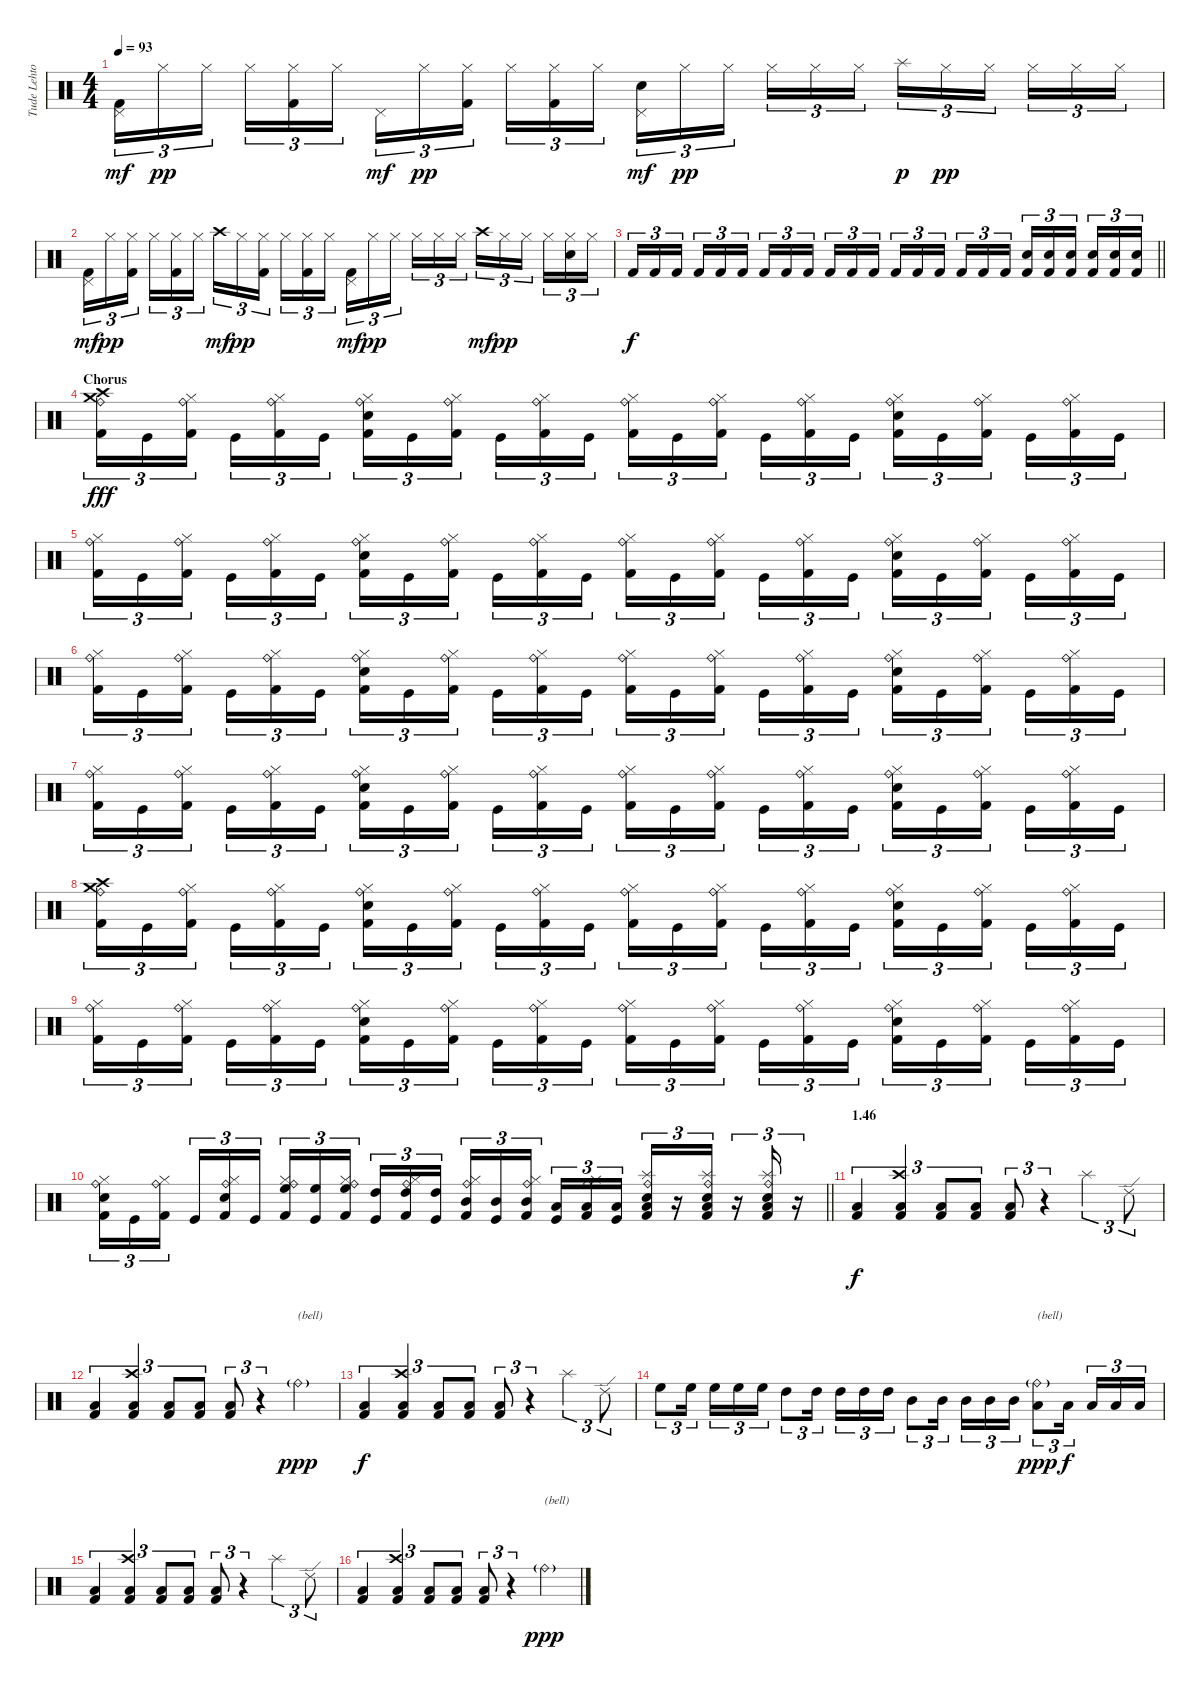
\track ("Tude Lehtonen" "Tude Lehto") {instrument percussion}
\staff {score}
\articulation defaults
\ts (4 4)
\tempo 93
\clef neutral
\ks aminor
("Pedal Hi-Hat (hit)" "Kick (hit) 2").16{tu (3 2) dy mf} "Hi-Hat (closed)".16{tu (3 2) dy pp} "Hi-Hat (closed)".16{tu (3 2)} "Hi-Hat (closed)".16{tu (3 2)} ("Hi-Hat (closed)" "Kick (hit) 2").16{tu (3 2)} "Hi-Hat (closed)".16{tu (3 2)} "Pedal Hi-Hat (hit)".16{tu (3 2) dy mf} "Hi-Hat (closed)".16{tu (3 2) dy pp} ("Hi-Hat (closed)" "Kick (hit) 2").16{tu (3 2)} "Hi-Hat (closed)".16{tu (3 2)} ("Hi-Hat (closed)" "Kick (hit) 2").16{tu (3 2)} "Hi-Hat (closed)".16{tu (3 2)} ("Pedal Hi-Hat (hit)" "Electric Snare (hit)").16{tu (3 2) dy mf} "Hi-Hat (closed)".16{tu (3 2) dy pp} "Hi-Hat (closed)".16{tu (3 2)} "Hi-Hat (closed)".16{tu (3 2)} "Hi-Hat (closed)".16{tu (3 2)} "Hi-Hat (closed)".16{tu (3 2)} "Splash (hit)".16{tu (3 2) dy p} "Hi-Hat (closed)".16{tu (3 2) dy pp} "Hi-Hat (closed)".16{tu (3 2)} "Hi-Hat (closed)".16{tu (3 2)} "Hi-Hat (closed)".16{tu (3 2)} "Hi-Hat (closed)".16{tu (3 2)} |
("Pedal Hi-Hat (hit)" "Kick (hit) 2").16{tu (3 2) dy mf} "Hi-Hat (closed)".16{tu (3 2) dy pp} ("Hi-Hat (closed)" "Kick (hit) 2").16{tu (3 2)} "Hi-Hat (closed)".16{tu (3 2)} ("Hi-Hat (closed)" "Kick (hit) 2").16{tu (3 2)} "Hi-Hat (closed)".16{tu (3 2)} "Crash high (hit)".16{tu (3 2) dy mf} "Hi-Hat (closed)".16{tu (3 2) dy pp} ("Hi-Hat (closed)" "Kick (hit) 2").16{tu (3 2)} "Hi-Hat (closed)".16{tu (3 2)} ("Hi-Hat (closed)" "Kick (hit) 2").16{tu (3 2)} "Hi-Hat (closed)".16{tu (3 2)} ("Pedal Hi-Hat (hit)" "Kick (hit) 2").16{tu (3 2) dy mf} "Hi-Hat (closed)".16{tu (3 2) dy pp} "Hi-Hat (closed)".16{tu (3 2)} "Hi-Hat (closed)".16{tu (3 2)} "Hi-Hat (closed)".16{tu (3 2)} "Hi-Hat (closed)".16{tu (3 2)} "Crash high (hit)".16{tu (3 2) dy mf} "Hi-Hat (closed)".16{tu (3 2) dy pp} "Hi-Hat (closed)".16{tu (3 2)} "Hi-Hat (closed)".16{tu (3 2)} ("Hi-Hat (closed)" "Electric Snare (hit)").16{tu (3 2)} "Hi-Hat (closed)".16{tu (3 2)} |
\barLineRight lightlight "Kick (hit) 2".16{tu (3 2) dy f} "Kick (hit) 2".16{tu (3 2)} "Kick (hit) 2".16{tu (3 2)} "Kick (hit) 2".16{tu (3 2)} "Kick (hit) 2".16{tu (3 2)} "Kick (hit) 2".16{tu (3 2)} "Kick (hit) 2".16{tu (3 2)} "Kick (hit) 2".16{tu (3 2)} "Kick (hit) 2".16{tu (3 2)} "Kick (hit) 2".16{tu (3 2)} "Kick (hit) 2".16{tu (3 2)} "Kick (hit) 2".16{tu (3 2)} "Kick (hit) 2".16{tu (3 2)} "Kick (hit) 2".16{tu (3 2)} "Kick (hit) 2".16{tu (3 2)} "Kick (hit) 2".16{tu (3 2)} "Kick (hit) 2".16{tu (3 2)} "Kick (hit) 2".16{tu (3 2)}
("Electric Snare (hit)" "Kick (hit) 2").16{tu (3 2)} ("Electric Snare (hit)" "Kick (hit) 2").16{tu (3 2)} ("Electric Snare (hit)" "Kick (hit) 2").16{tu (3 2)} ("Electric Snare (hit)" "Kick (hit) 2").16{tu (3 2)} ("Electric Snare (hit)" "Kick (hit) 2").16{tu (3 2)} ("Electric Snare (hit)" "Kick (hit) 2").16{tu (3 2)} |
\section ("" "Chorus")
("Crash high (hit)" "Crash medium (hit)" "Ride (bell)" "Kick (hit) 2").16{tu (3 2) dy fff} "Kick (hit)".16{tu (3 2)} ("Hi-Hat (closed)" "Ride (bell)" "Kick (hit) 2").16{tu (3 2)} "Kick (hit)".16{tu (3 2)} ("Hi-Hat (closed)" "Ride (bell)" "Kick (hit) 2").16{tu (3 2)} "Kick (hit)".16{tu (3 2)} ("Hi-Hat (closed)" "Ride (bell)" "Electric Snare (hit)" "Kick (hit) 2").16{tu (3 2)} "Kick (hit)".16{tu (3 2)} ("Hi-Hat (closed)" "Ride (bell)" "Kick (hit) 2").16{tu (3 2)} "Kick (hit)".16{tu (3 2)} ("Hi-Hat (closed)" "Ride (bell)" "Kick (hit) 2").16{tu (3 2)} "Kick (hit)".16{tu (3 2)} ("Hi-Hat (closed)" "Ride (bell)" "Kick (hit) 2").16{tu (3 2)} "Kick (hit)".16{tu (3 2)} ("Hi-Hat (closed)" "Ride (bell)" "Kick (hit) 2").16{tu (3 2)} "Kick (hit)".16{tu (3 2)} ("Hi-Hat (closed)" "Ride (bell)" "Kick (hit) 2").16{tu (3 2)} "Kick (hit)".16{tu (3 2)} ("Hi-Hat (closed)" "Ride (bell)" "Electric Snare (hit)" "Kick (hit) 2").16{tu (3 2)} "Kick (hit)".16{tu (3 2)} ("Hi-Hat (closed)" "Ride (bell)" "Kick (hit) 2").16{tu (3 2)} "Kick (hit)".16{tu (3 2)} ("Hi-Hat (closed)" "Ride (bell)" "Kick (hit) 2").16{tu (3 2)} "Kick (hit)".16{tu (3 2)} |
("Hi-Hat (closed)" "Ride (bell)" "Kick (hit) 2").16{tu (3 2)} "Kick (hit)".16{tu (3 2)} ("Hi-Hat (closed)" "Ride (bell)" "Kick (hit) 2").16{tu (3 2)} "Kick (hit)".16{tu (3 2)} ("Hi-Hat (closed)" "Ride (bell)" "Kick (hit) 2").16{tu (3 2)} "Kick (hit)".16{tu (3 2)} ("Hi-Hat (closed)" "Ride (bell)" "Electric Snare (hit)" "Kick (hit) 2").16{tu (3 2)} "Kick (hit)".16{tu (3 2)} ("Hi-Hat (closed)" "Ride (bell)" "Kick (hit) 2").16{tu (3 2)} "Kick (hit)".16{tu (3 2)} ("Hi-Hat (closed)" "Ride (bell)" "Kick (hit) 2").16{tu (3 2)} "Kick (hit)".16{tu (3 2)} ("Hi-Hat (closed)" "Ride (bell)" "Kick (hit) 2").16{tu (3 2)} "Kick (hit)".16{tu (3 2)} ("Hi-Hat (closed)" "Ride (bell)" "Kick (hit) 2").16{tu (3 2)} "Kick (hit)".16{tu (3 2)} ("Hi-Hat (closed)" "Ride (bell)" "Kick (hit) 2").16{tu (3 2)} "Kick (hit)".16{tu (3 2)} ("Hi-Hat (closed)" "Ride (bell)" "Electric Snare (hit)" "Kick (hit) 2").16{tu (3 2)} "Kick (hit)".16{tu (3 2)} ("Hi-Hat (closed)" "Ride (bell)" "Kick (hit) 2").16{tu (3 2)} "Kick (hit)".16{tu (3 2)} ("Hi-Hat (closed)" "Ride (bell)" "Kick (hit) 2").16{tu (3 2)} "Kick (hit)".16{tu (3 2)} |
("Hi-Hat (closed)" "Ride (bell)" "Kick (hit) 2").16{tu (3 2)} "Kick (hit)".16{tu (3 2)} ("Hi-Hat (closed)" "Ride (bell)" "Kick (hit) 2").16{tu (3 2)} "Kick (hit)".16{tu (3 2)} ("Hi-Hat (closed)" "Ride (bell)" "Kick (hit) 2").16{tu (3 2)} "Kick (hit)".16{tu (3 2)} ("Hi-Hat (closed)" "Ride (bell)" "Electric Snare (hit)" "Kick (hit) 2").16{tu (3 2)} "Kick (hit)".16{tu (3 2)} ("Hi-Hat (closed)" "Ride (bell)" "Kick (hit) 2").16{tu (3 2)} "Kick (hit)".16{tu (3 2)} ("Hi-Hat (closed)" "Ride (bell)" "Kick (hit) 2").16{tu (3 2)} "Kick (hit)".16{tu (3 2)} ("Hi-Hat (closed)" "Ride (bell)" "Kick (hit) 2").16{tu (3 2)} "Kick (hit)".16{tu (3 2)} ("Hi-Hat (closed)" "Ride (bell)" "Kick (hit) 2").16{tu (3 2)} "Kick (hit)".16{tu (3 2)} ("Hi-Hat (closed)" "Ride (bell)" "Kick (hit) 2").16{tu (3 2)} "Kick (hit)".16{tu (3 2)} ("Hi-Hat (closed)" "Ride (bell)" "Electric Snare (hit)" "Kick (hit) 2").16{tu (3 2)} "Kick (hit)".16{tu (3 2)} ("Hi-Hat (closed)" "Ride (bell)" "Kick (hit) 2").16{tu (3 2)} "Kick (hit)".16{tu (3 2)} ("Hi-Hat (closed)" "Ride (bell)" "Kick (hit) 2").16{tu (3 2)} "Kick (hit)".16{tu (3 2)} |
("Hi-Hat (closed)" "Ride (bell)" "Kick (hit) 2").16{tu (3 2)} "Kick (hit)".16{tu (3 2)} ("Hi-Hat (closed)" "Ride (bell)" "Kick (hit) 2").16{tu (3 2)} "Kick (hit)".16{tu (3 2)} ("Hi-Hat (closed)" "Ride (bell)" "Kick (hit) 2").16{tu (3 2)} "Kick (hit)".16{tu (3 2)} ("Hi-Hat (closed)" "Ride (bell)" "Electric Snare (hit)" "Kick (hit) 2").16{tu (3 2)} "Kick (hit)".16{tu (3 2)} ("Hi-Hat (closed)" "Ride (bell)" "Kick (hit) 2").16{tu (3 2)} "Kick (hit)".16{tu (3 2)} ("Hi-Hat (closed)" "Ride (bell)" "Kick (hit) 2").16{tu (3 2)} "Kick (hit)".16{tu (3 2)} ("Hi-Hat (closed)" "Ride (bell)" "Kick (hit) 2").16{tu (3 2)} "Kick (hit)".16{tu (3 2)} ("Hi-Hat (closed)" "Ride (bell)" "Kick (hit) 2").16{tu (3 2)} "Kick (hit)".16{tu (3 2)} ("Hi-Hat (closed)" "Ride (bell)" "Kick (hit) 2").16{tu (3 2)} "Kick (hit)".16{tu (3 2)} ("Hi-Hat (closed)" "Ride (bell)" "Electric Snare (hit)" "Kick (hit) 2").16{tu (3 2)} "Kick (hit)".16{tu (3 2)} ("Hi-Hat (closed)" "Ride (bell)" "Kick (hit) 2").16{tu (3 2)} "Kick (hit)".16{tu (3 2)} ("Hi-Hat (closed)" "Ride (bell)" "Kick (hit) 2").16{tu (3 2)} "Kick (hit)".16{tu (3 2)} |
("Crash high (hit)" "Crash medium (hit)" "Ride (bell)" "Kick (hit) 2").16{tu (3 2)} "Kick (hit)".16{tu (3 2)} ("Hi-Hat (closed)" "Ride (bell)" "Kick (hit) 2").16{tu (3 2)} "Kick (hit)".16{tu (3 2)} ("Hi-Hat (closed)" "Ride (bell)" "Kick (hit) 2").16{tu (3 2)} "Kick (hit)".16{tu (3 2)} ("Hi-Hat (closed)" "Ride (bell)" "Electric Snare (hit)" "Kick (hit) 2").16{tu (3 2)} "Kick (hit)".16{tu (3 2)} ("Hi-Hat (closed)" "Ride (bell)" "Kick (hit) 2").16{tu (3 2)} "Kick (hit)".16{tu (3 2)} ("Hi-Hat (closed)" "Ride (bell)" "Kick (hit) 2").16{tu (3 2)} "Kick (hit)".16{tu (3 2)} ("Hi-Hat (closed)" "Ride (bell)" "Kick (hit) 2").16{tu (3 2)} "Kick (hit)".16{tu (3 2)} ("Hi-Hat (closed)" "Ride (bell)" "Kick (hit) 2").16{tu (3 2)} "Kick (hit)".16{tu (3 2)} ("Hi-Hat (closed)" "Ride (bell)" "Kick (hit) 2").16{tu (3 2)} "Kick (hit)".16{tu (3 2)} ("Hi-Hat (closed)" "Ride (bell)" "Electric Snare (hit)" "Kick (hit) 2").16{tu (3 2)} "Kick (hit)".16{tu (3 2)} ("Hi-Hat (closed)" "Ride (bell)" "Kick (hit) 2").16{tu (3 2)} "Kick (hit)".16{tu (3 2)} ("Hi-Hat (closed)" "Ride (bell)" "Kick (hit) 2").16{tu (3 2)} "Kick (hit)".16{tu (3 2)} |
("Hi-Hat (closed)" "Ride (bell)" "Kick (hit) 2").16{tu (3 2)} "Kick (hit)".16{tu (3 2)} ("Hi-Hat (closed)" "Ride (bell)" "Kick (hit) 2").16{tu (3 2)} "Kick (hit)".16{tu (3 2)} ("Hi-Hat (closed)" "Ride (bell)" "Kick (hit) 2").16{tu (3 2)} "Kick (hit)".16{tu (3 2)} ("Hi-Hat (closed)" "Ride (bell)" "Electric Snare (hit)" "Kick (hit) 2").16{tu (3 2)} "Kick (hit)".16{tu (3 2)} ("Hi-Hat (closed)" "Ride (bell)" "Kick (hit) 2").16{tu (3 2)} "Kick (hit)".16{tu (3 2)} ("Hi-Hat (closed)" "Ride (bell)" "Kick (hit) 2").16{tu (3 2)} "Kick (hit)".16{tu (3 2)} ("Hi-Hat (closed)" "Ride (bell)" "Kick (hit) 2").16{tu (3 2)} "Kick (hit)".16{tu (3 2)} ("Hi-Hat (closed)" "Ride (bell)" "Kick (hit) 2").16{tu (3 2)} "Kick (hit)".16{tu (3 2)} ("Hi-Hat (closed)" "Ride (bell)" "Kick (hit) 2").16{tu (3 2)} "Kick (hit)".16{tu (3 2)} ("Hi-Hat (closed)" "Ride (bell)" "Electric Snare (hit)" "Kick (hit) 2").16{tu (3 2)} "Kick (hit)".16{tu (3 2)} ("Hi-Hat (closed)" "Ride (bell)" "Kick (hit) 2").16{tu (3 2)} "Kick (hit)".16{tu (3 2)} ("Hi-Hat (closed)" "Ride (bell)" "Kick (hit) 2").16{tu (3 2)} "Kick (hit)".16{tu (3 2)} |
\barLineRight lightlight
("Hi-Hat (closed)" "Ride (bell)" "Electric Snare (hit)" "Kick (hit) 2").16{tu (3 2)} "Kick (hit)".16{tu (3 2)} ("Hi-Hat (closed)" "Ride (bell)" "Kick (hit) 2").16{tu (3 2)} "Kick (hit)".16{tu (3 2)} ("Hi-Hat (closed)" "Ride (bell)" "Snare (hit) 2" "Kick (hit) 2").16{tu (3 2)} "Kick (hit)".16{tu (3 2)} ("Hi-Hat (closed)" "Ride (bell)" "High Floor Tom (hit)" "Kick (hit) 2").16{tu (3 2)} ("High Floor Tom (hit)" "Kick (hit)").16{tu (3 2)} ("Hi-Hat (closed)" "Ride (bell)" "High Floor Tom (hit)" "Kick (hit) 2").16{tu (3 2)} ("High Tom (hit)" "Kick (hit)").16{tu (3 2)} ("Hi-Hat (closed)" "Ride (bell)" "High Tom (hit)" "Kick (hit) 2").16{tu (3 2)} ("High Tom (hit)" "Kick (hit)").16{tu (3 2)} ("Hi-Hat (closed)" "Ride (bell)" "Mid Tom (hit)" "Kick (hit) 2").16{tu (3 2)} ("Mid Tom (hit)" "Kick (hit)").16{tu (3 2)} ("Hi-Hat (closed)" "Ride (bell)" "Mid Tom (hit)" "Kick (hit) 2").16{tu (3 2)} ("Low Tom (hit)" "Kick (hit)").16{tu (3 2)} ("Hi-Hat (closed)" "Ride (bell)" "Low Tom (hit)" "Kick (hit) 2").16{tu (3 2)} ("Low Tom (hit)" "Kick (hit)").16{tu (3 2)} ("Splash (hit)" "Ride (bell)" "Electric Snare (hit)" "Low Floor Tom (hit)" "Kick (hit) 2").16{tu (3 2)} r.16{tu (3 2)} ("Splash (hit)" "Ride (bell)" "Electric Snare (hit)" "Low Floor Tom (hit)" "Kick (hit) 2").16{tu (3 2)} r.16{tu (3 2)} ("Splash (hit)" "Ride (bell)" "Electric Snare (hit)" "Low Floor Tom (hit)" "Kick (hit) 2").16{tu (3 2)} r.16{tu (3 2)} |
\section ("" "1.46")
("Low Floor Tom (hit)" "Kick (hit) 2").4{tu (3 2) dy f} ("Crash high (hit)" "Low Floor Tom (hit)" "Kick (hit) 2").4{tu (3 2)} ("Low Floor Tom (hit)" "Kick (hit) 2").8{tu (3 2)} ("Low Floor Tom (hit)" "Kick (hit) 2").8{tu (3 2)} ("Low Floor Tom (hit)" "Kick (hit) 2").8{tu (3 2)} r.4{tu (3 2)} "Splash (hit)".4{tu (3 2)} "Ride (edge) 2".8{tu (3 2)} |
("Low Floor Tom (hit)" "Kick (hit) 2").4{tu (3 2)} ("Crash high (hit)" "Low Floor Tom (hit)" "Kick (hit) 2").4{tu (3 2)} ("Low Floor Tom (hit)" "Kick (hit) 2").8{tu (3 2)} ("Low Floor Tom (hit)" "Kick (hit) 2").8{tu (3 2)} ("Low Floor Tom (hit)" "Kick (hit) 2").8{tu (3 2)} r.4{tu (3 2)} "Ride (bell)"{g}.4{txt "(bell)" dy ppp} |
("Low Floor Tom (hit)" "Kick (hit) 2").4{tu (3 2) dy f} ("Crash high (hit)" "Low Floor Tom (hit)" "Kick (hit) 2").4{tu (3 2)} ("Low Floor Tom (hit)" "Kick (hit) 2").8{tu (3 2)} ("Low Floor Tom (hit)" "Kick (hit) 2").8{tu (3 2)} ("Low Floor Tom (hit)" "Kick (hit) 2").8{tu (3 2)} r.4{tu (3 2)} "Splash (hit)".4{tu (3 2)} "Ride (edge) 2".8{tu (3 2)} |
"High Floor Tom (hit)".8{tu (3 2)} "High Floor Tom (hit)".16{tu (3 2)} "High Floor Tom (hit)".16{tu (3 2)} "High Floor Tom (hit)".16{tu (3 2)} "High Floor Tom (hit)".16{tu (3 2)} "High Tom (hit)".8{tu (3 2)} "High Tom (hit)".16{tu (3 2)} "High Tom (hit)".16{tu (3 2)} "High Tom (hit)".16{tu (3 2)} "High Tom (hit)".16{tu (3 2)} "Mid Tom (hit)".8{tu (3 2)} "Mid Tom (hit)".16{tu (3 2)} "Mid Tom (hit)".16{tu (3 2)} "Mid Tom (hit)".16{tu (3 2)} "Mid Tom (hit)".16{tu (3 2)} ("Ride (bell)"{g} "Low Floor Tom (hit)").8{tu (3 2) txt "(bell)" dy ppp} "Low Floor Tom (hit)".16{tu (3 2) dy f} "Low Floor Tom (hit)".16{tu (3 2)} "Low Floor Tom (hit)".16{tu (3 2)} "Low Floor Tom (hit)".16{tu (3 2)} |
("Low Floor Tom (hit)" "Kick (hit) 2").4{tu (3 2)} ("Crash high (hit)" "Low Floor Tom (hit)" "Kick (hit) 2").4{tu (3 2)} ("Low Floor Tom (hit)" "Kick (hit) 2").8{tu (3 2)} ("Low Floor Tom (hit)" "Kick (hit) 2").8{tu (3 2)} ("Low Floor Tom (hit)" "Kick (hit) 2").8{tu (3 2)} r.4{tu (3 2)} "Splash (hit)".4{tu (3 2)} "Ride (edge) 2".8{tu (3 2)} |
("Low Floor Tom (hit)" "Kick (hit) 2").4{tu (3 2)} ("Crash high (hit)" "Low Floor Tom (hit)" "Kick (hit) 2").4{tu (3 2)} ("Low Floor Tom (hit)" "Kick (hit) 2").8{tu (3 2)} ("Low Floor Tom (hit)" "Kick (hit) 2").8{tu (3 2)} ("Low Floor Tom (hit)" "Kick (hit) 2").8{tu (3 2)} r.4{tu (3 2)} "Ride (bell)"{g}.4{txt "(bell)" dy ppp}
